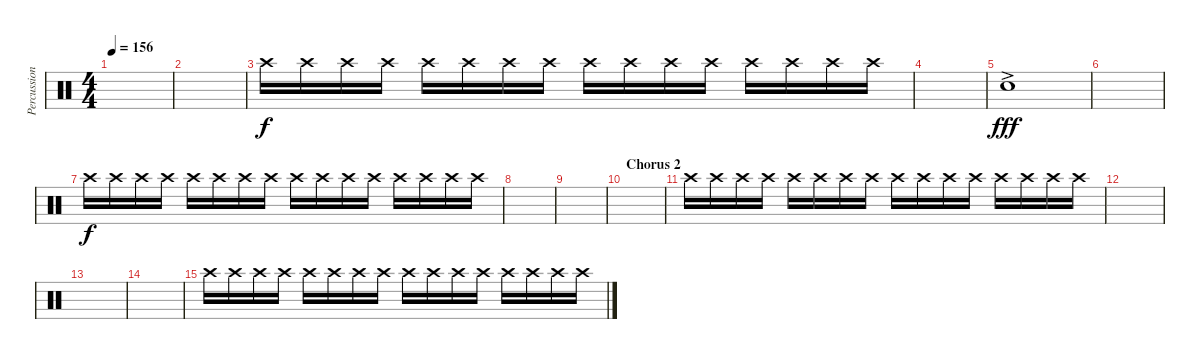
\track ("Percussion" "Percussion") {instrument percussion}
\staff {score}
\articulation defaults
\ts (4 4)
\tempo 156
\clef neutral
\ks c
|
|
"Crash high (hit)".16 "Crash high (hit)".16 "Crash high (hit)".16 "Crash high (hit)".16 "Crash high (hit)".16 "Crash high (hit)".16 "Crash high (hit)".16 "Crash high (hit)".16 "Crash high (hit)".16 "Crash high (hit)".16 "Crash high (hit)".16 "Crash high (hit)".16 "Crash high (hit)".16 "Crash high (hit)".16 "Crash high (hit)".16 "Crash high (hit)".16 |
|
"Hand Clap (hit)"{ac}.1{dy fff volume 16} |
|
"Crash high (hit)".16{dy f volume 6} "Crash high (hit)".16 "Crash high (hit)".16 "Crash high (hit)".16 "Crash high (hit)".16 "Crash high (hit)".16 "Crash high (hit)".16 "Crash high (hit)".16 "Crash high (hit)".16 "Crash high (hit)".16 "Crash high (hit)".16 "Crash high (hit)".16 "Crash high (hit)".16 "Crash high (hit)".16 "Crash high (hit)".16 "Crash high (hit)".16 |
|
|
\section ("" "Chorus 2")
|
"Crash high (hit)".16{volume 6} "Crash high (hit)".16 "Crash high (hit)".16 "Crash high (hit)".16 "Crash high (hit)".16 "Crash high (hit)".16 "Crash high (hit)".16 "Crash high (hit)".16 "Crash high (hit)".16 "Crash high (hit)".16 "Crash high (hit)".16 "Crash high (hit)".16 "Crash high (hit)".16 "Crash high (hit)".16 "Crash high (hit)".16 "Crash high (hit)".16 |
|
|
|
"Crash high (hit)".16 "Crash high (hit)".16 "Crash high (hit)".16 "Crash high (hit)".16 "Crash high (hit)".16 "Crash high (hit)".16 "Crash high (hit)".16 "Crash high (hit)".16 "Crash high (hit)".16 "Crash high (hit)".16 "Crash high (hit)".16 "Crash high (hit)".16 "Crash high (hit)".16 "Crash high (hit)".16 "Crash high (hit)".16 "Crash high (hit)".16
